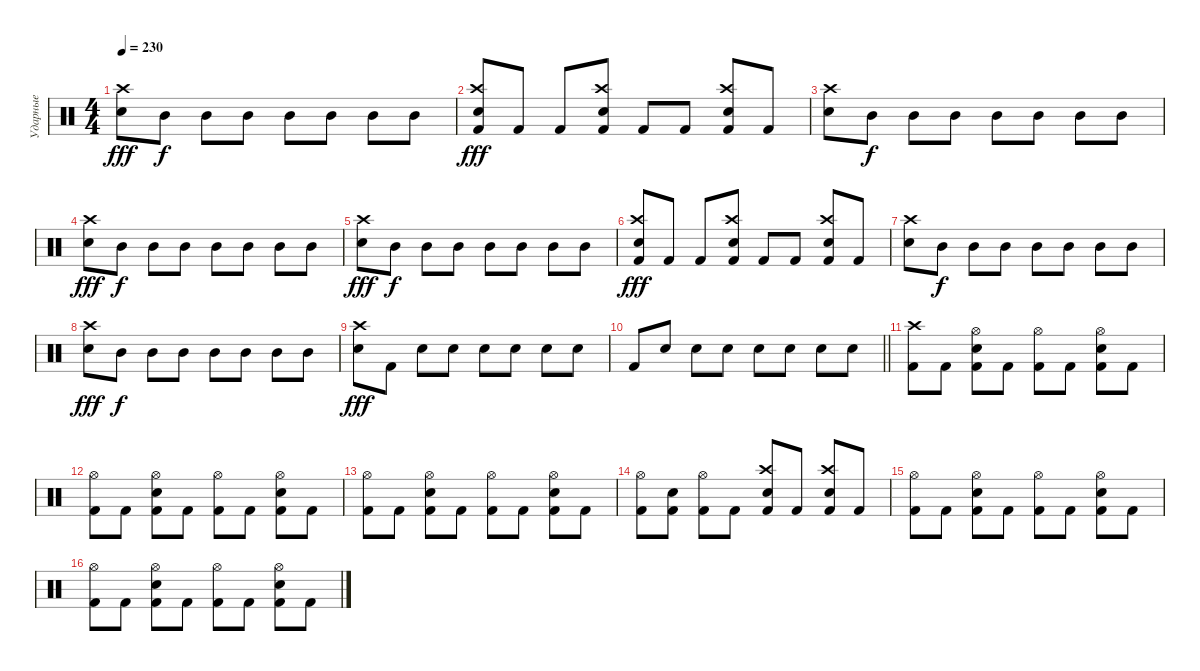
\track ("Ударные" "Ударные") {instrument percussion}
\staff {score}
\articulation defaults
\ts (4 4)
\tempo 230
\clef neutral
\ks c
("Snare (hit) 2" "Crash high (hit)").8{dy fff} "Mid Tom (hit)".8{dy f} "Mid Tom (hit)".8 "Mid Tom (hit)".8 "Mid Tom (hit)".8 "Mid Tom (hit)".8 "Mid Tom (hit)".8 "Mid Tom (hit)".8 |
("Kick (hit) 2" "Snare (hit) 2" "Crash high (hit)").8{dy fff} "Kick (hit) 2".8 "Kick (hit) 2".8 ("Kick (hit) 2" "Snare (hit) 2" "Crash high (hit)").8 "Kick (hit) 2".8 "Kick (hit) 2".8 ("Kick (hit) 2" "Snare (hit) 2" "Crash high (hit)").8 "Kick (hit) 2".8 |
("Snare (hit) 2" "Crash high (hit)").8 "Mid Tom (hit)".8{dy f} "Mid Tom (hit)".8 "Mid Tom (hit)".8 "Mid Tom (hit)".8 "Mid Tom (hit)".8 "Mid Tom (hit)".8 "Mid Tom (hit)".8 |
("Snare (hit) 2" "Crash high (hit)").8{dy fff} "Mid Tom (hit)".8{dy f} "Mid Tom (hit)".8 "Mid Tom (hit)".8 "Mid Tom (hit)".8 "Mid Tom (hit)".8 "Mid Tom (hit)".8 "Mid Tom (hit)".8 |
("Snare (hit) 2" "Crash high (hit)").8{dy fff} "Mid Tom (hit)".8{dy f} "Mid Tom (hit)".8 "Mid Tom (hit)".8 "Mid Tom (hit)".8 "Mid Tom (hit)".8 "Mid Tom (hit)".8 "Mid Tom (hit)".8 |
("Kick (hit) 2" "Snare (hit) 2" "Crash high (hit)").8{dy fff} "Kick (hit) 2".8 "Kick (hit) 2".8 ("Kick (hit) 2" "Snare (hit) 2" "Crash high (hit)").8 "Kick (hit) 2".8 "Kick (hit) 2".8 ("Kick (hit) 2" "Snare (hit) 2" "Crash high (hit)").8 "Kick (hit) 2".8 |
("Snare (hit) 2" "Crash high (hit)").8 "Mid Tom (hit)".8{dy f} "Mid Tom (hit)".8 "Mid Tom (hit)".8 "Mid Tom (hit)".8 "Mid Tom (hit)".8 "Mid Tom (hit)".8 "Mid Tom (hit)".8 |
("Snare (hit) 2" "Crash high (hit)").8{dy fff} "Mid Tom (hit)".8{dy f} "Mid Tom (hit)".8 "Mid Tom (hit)".8 "Mid Tom (hit)".8 "Mid Tom (hit)".8 "Mid Tom (hit)".8 "Mid Tom (hit)".8 |
("Snare (hit) 2" "Crash high (hit)").8{dy fff} "Kick (hit) 2".8 "Snare (hit) 2".8 "Snare (hit) 2".8 "Snare (hit) 2".8 "Snare (hit) 2".8 "Snare (hit) 2".8 "Snare (hit) 2".8 |
\barLineRight lightlight "Kick (hit) 2".8 "Snare (hit) 2".8 "Snare (hit) 2".8 "Snare (hit) 2".8 "Snare (hit) 2".8 "Snare (hit) 2".8 "Snare (hit) 2".8 "Snare (hit) 2".8
|
("Kick (hit) 2" "Crash high (hit)").8 "Kick (hit) 2".8 ("Kick (hit) 2" "Snare (hit) 2" "Hi-Hat (open)").8 "Kick (hit) 2".8 ("Kick (hit) 2" "Hi-Hat (open)").8 "Kick (hit) 2".8 ("Kick (hit) 2" "Snare (hit) 2" "Hi-Hat (open)").8 "Kick (hit) 2".8 |
("Kick (hit) 2" "Hi-Hat (open)").8 "Kick (hit) 2".8 ("Kick (hit) 2" "Snare (hit) 2" "Hi-Hat (open)").8 "Kick (hit) 2".8 ("Kick (hit) 2" "Hi-Hat (open)").8 "Kick (hit) 2".8 ("Kick (hit) 2" "Snare (hit) 2" "Hi-Hat (open)").8 "Kick (hit) 2".8 |
("Kick (hit) 2" "Hi-Hat (open)").8 "Kick (hit) 2".8 ("Kick (hit) 2" "Snare (hit) 2" "Hi-Hat (open)").8 "Kick (hit) 2".8 ("Kick (hit) 2" "Hi-Hat (open)").8 "Kick (hit) 2".8 ("Kick (hit) 2" "Snare (hit) 2" "Hi-Hat (open)").8 "Kick (hit) 2".8 |
("Kick (hit) 2" "Hi-Hat (open)").8 ("Kick (hit) 2" "Snare (hit) 2").8 ("Kick (hit) 2" "Hi-Hat (open)").8 "Kick (hit) 2".8 ("Kick (hit) 2" "Snare (hit) 2" "Crash high (hit)").8 "Kick (hit) 2".8 ("Kick (hit) 2" "Snare (hit) 2" "Crash high (hit)").8 "Kick (hit) 2".8 |
("Kick (hit) 2" "Hi-Hat (open)").8 "Kick (hit) 2".8 ("Kick (hit) 2" "Snare (hit) 2" "Hi-Hat (open)").8 "Kick (hit) 2".8 ("Kick (hit) 2" "Hi-Hat (open)").8 "Kick (hit) 2".8 ("Kick (hit) 2" "Snare (hit) 2" "Hi-Hat (open)").8 "Kick (hit) 2".8 |
("Kick (hit) 2" "Hi-Hat (open)").8 "Kick (hit) 2".8 ("Kick (hit) 2" "Snare (hit) 2" "Hi-Hat (open)").8 "Kick (hit) 2".8 ("Kick (hit) 2" "Hi-Hat (open)").8 "Kick (hit) 2".8 ("Kick (hit) 2" "Snare (hit) 2" "Hi-Hat (open)").8 "Kick (hit) 2".8
